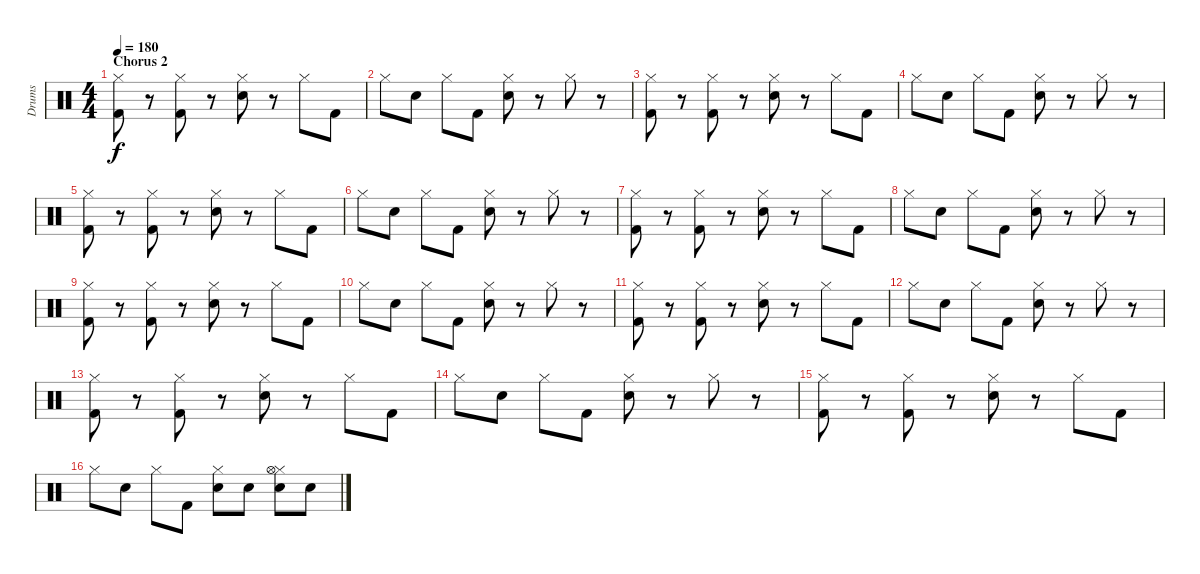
\track ("Drums" "Drums") {instrument percussion}
\staff {score}
\articulation defaults
\ts (4 4)
\section ("" "Chorus 2")
\tempo 180
\clef neutral
\ks c
("Hi-Hat (closed)" "Kick (hit) 2").8{dy f} r.8 ("Hi-Hat (closed)" "Kick (hit) 2").8 r.8 ("Hi-Hat (closed)" "Snare (hit) 2").8 r.8 "Hi-Hat (closed)".8 "Kick (hit) 2".8 |
"Hi-Hat (closed)".8 "Snare (hit) 2".8 "Hi-Hat (closed)".8 "Kick (hit) 2".8 ("Hi-Hat (closed)" "Snare (hit) 2").8 r.8 "Hi-Hat (closed)".8 r.8 |
("Hi-Hat (closed)" "Kick (hit) 2").8 r.8 ("Hi-Hat (closed)" "Kick (hit) 2").8 r.8 ("Hi-Hat (closed)" "Snare (hit) 2").8 r.8 "Hi-Hat (closed)".8 "Kick (hit) 2".8 |
"Hi-Hat (closed)".8 "Snare (hit) 2".8 "Hi-Hat (closed)".8 "Kick (hit) 2".8 ("Hi-Hat (closed)" "Snare (hit) 2").8 r.8 "Hi-Hat (closed)".8 r.8 |
("Hi-Hat (closed)" "Kick (hit) 2").8 r.8 ("Hi-Hat (closed)" "Kick (hit) 2").8 r.8 ("Hi-Hat (closed)" "Snare (hit) 2").8 r.8 "Hi-Hat (closed)".8 "Kick (hit) 2".8 |
"Hi-Hat (closed)".8 "Snare (hit) 2".8 "Hi-Hat (closed)".8 "Kick (hit) 2".8 ("Hi-Hat (closed)" "Snare (hit) 2").8 r.8 "Hi-Hat (closed)".8 r.8 |
("Hi-Hat (closed)" "Kick (hit) 2").8 r.8 ("Hi-Hat (closed)" "Kick (hit) 2").8 r.8 ("Hi-Hat (closed)" "Snare (hit) 2").8 r.8 "Hi-Hat (closed)".8 "Kick (hit) 2".8 |
"Hi-Hat (closed)".8 "Snare (hit) 2".8 "Hi-Hat (closed)".8 "Kick (hit) 2".8 ("Hi-Hat (closed)" "Snare (hit) 2").8 r.8 "Hi-Hat (closed)".8 r.8 |
("Hi-Hat (closed)" "Kick (hit) 2").8 r.8 ("Hi-Hat (closed)" "Kick (hit) 2").8 r.8 ("Hi-Hat (closed)" "Snare (hit) 2").8 r.8 "Hi-Hat (closed)".8 "Kick (hit) 2".8 |
"Hi-Hat (closed)".8 "Snare (hit) 2".8 "Hi-Hat (closed)".8 "Kick (hit) 2".8 ("Hi-Hat (closed)" "Snare (hit) 2").8 r.8 "Hi-Hat (closed)".8 r.8 |
("Hi-Hat (closed)" "Kick (hit) 2").8 r.8 ("Hi-Hat (closed)" "Kick (hit) 2").8 r.8 ("Hi-Hat (closed)" "Snare (hit) 2").8 r.8 "Hi-Hat (closed)".8 "Kick (hit) 2".8 |
"Hi-Hat (closed)".8 "Snare (hit) 2".8 "Hi-Hat (closed)".8 "Kick (hit) 2".8 ("Hi-Hat (closed)" "Snare (hit) 2").8 r.8 "Hi-Hat (closed)".8 r.8 |
("Hi-Hat (closed)" "Kick (hit) 2").8 r.8 ("Hi-Hat (closed)" "Kick (hit) 2").8 r.8 ("Hi-Hat (closed)" "Snare (hit) 2").8 r.8 "Hi-Hat (closed)".8 "Kick (hit) 2".8 |
"Hi-Hat (closed)".8 "Snare (hit) 2".8 "Hi-Hat (closed)".8 "Kick (hit) 2".8 ("Hi-Hat (closed)" "Snare (hit) 2").8 r.8 "Hi-Hat (closed)".8 r.8 |
("Hi-Hat (closed)" "Kick (hit) 2").8 r.8 ("Hi-Hat (closed)" "Kick (hit) 2").8 r.8 ("Hi-Hat (closed)" "Snare (hit) 2").8 r.8 "Hi-Hat (closed)".8 "Kick (hit) 2".8 |
"Hi-Hat (closed)".8 "Snare (hit) 2".8 "Hi-Hat (closed)".8 "Kick (hit) 2".8 ("Hi-Hat (closed)" "Snare (hit) 2").8 "Snare (hit) 2".8 ("Hi-Hat (closed)" "Snare (hit) 2" "Hi-Hat (open)").8 "Snare (hit) 2".8
